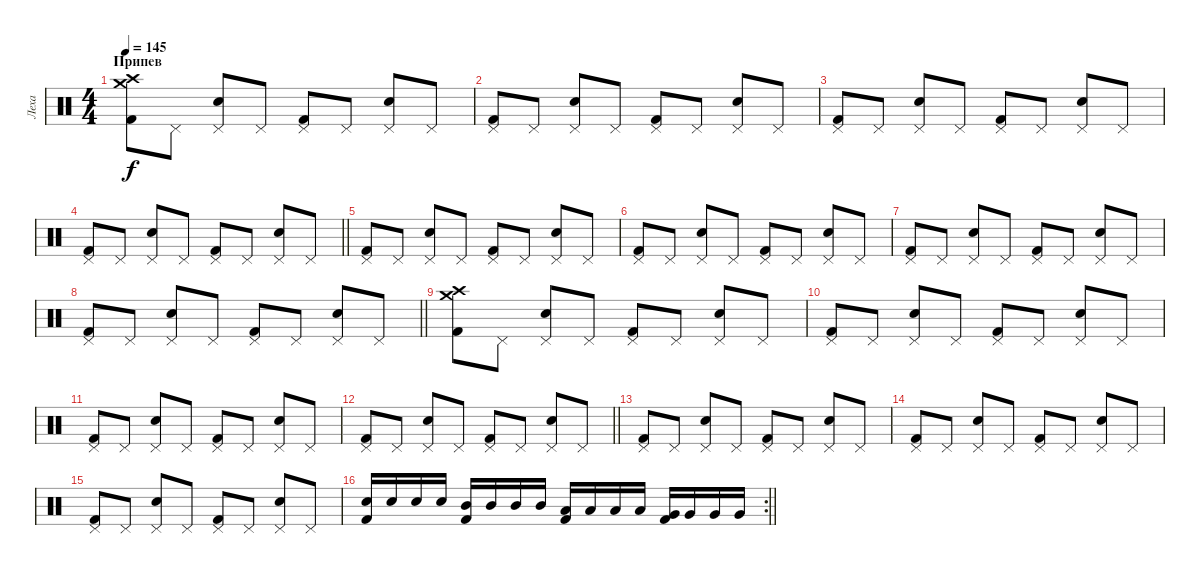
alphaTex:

\track ("Леха" "Леха") {instrument percussion}
\staff {score}
\articulation defaults
\ts (4 4)
\section ("" "Припев")
\tempo 145
\clef neutral
\ks c
("Crash medium (hit)" "Crash high (hit)" "Kick (hit) 2").8{dy f} "Pedal Hi-Hat (hit)".8 ("Pedal Hi-Hat (hit)" "Electric Snare (hit)").8 "Pedal Hi-Hat (hit)".8 ("Pedal Hi-Hat (hit)" "Kick (hit) 2").8 "Pedal Hi-Hat (hit)".8 ("Pedal Hi-Hat (hit)" "Electric Snare (hit)").8 "Pedal Hi-Hat (hit)".8 |
("Pedal Hi-Hat (hit)" "Kick (hit) 2").8 "Pedal Hi-Hat (hit)".8 ("Pedal Hi-Hat (hit)" "Electric Snare (hit)").8 "Pedal Hi-Hat (hit)".8 ("Pedal Hi-Hat (hit)" "Kick (hit) 2").8 "Pedal Hi-Hat (hit)".8 ("Pedal Hi-Hat (hit)" "Electric Snare (hit)").8 "Pedal Hi-Hat (hit)".8 |
("Pedal Hi-Hat (hit)" "Kick (hit) 2").8 "Pedal Hi-Hat (hit)".8 ("Pedal Hi-Hat (hit)" "Electric Snare (hit)").8 "Pedal Hi-Hat (hit)".8 ("Pedal Hi-Hat (hit)" "Kick (hit) 2").8 "Pedal Hi-Hat (hit)".8 ("Pedal Hi-Hat (hit)" "Electric Snare (hit)").8 "Pedal Hi-Hat (hit)".8 |
\barLineRight lightlight
("Pedal Hi-Hat (hit)" "Kick (hit) 2").8 "Pedal Hi-Hat (hit)".8 ("Pedal Hi-Hat (hit)" "Electric Snare (hit)").8 "Pedal Hi-Hat (hit)".8 ("Pedal Hi-Hat (hit)" "Kick (hit) 2").8 "Pedal Hi-Hat (hit)".8 ("Pedal Hi-Hat (hit)" "Electric Snare (hit)").8 "Pedal Hi-Hat (hit)".8 |
("Pedal Hi-Hat (hit)" "Kick (hit) 2").8 "Pedal Hi-Hat (hit)".8 ("Pedal Hi-Hat (hit)" "Electric Snare (hit)").8 "Pedal Hi-Hat (hit)".8 ("Pedal Hi-Hat (hit)" "Kick (hit) 2").8 "Pedal Hi-Hat (hit)".8 ("Pedal Hi-Hat (hit)" "Electric Snare (hit)").8 "Pedal Hi-Hat (hit)".8 |
("Pedal Hi-Hat (hit)" "Kick (hit) 2").8 "Pedal Hi-Hat (hit)".8 ("Pedal Hi-Hat (hit)" "Electric Snare (hit)").8 "Pedal Hi-Hat (hit)".8 ("Pedal Hi-Hat (hit)" "Kick (hit) 2").8 "Pedal Hi-Hat (hit)".8 ("Pedal Hi-Hat (hit)" "Electric Snare (hit)").8 "Pedal Hi-Hat (hit)".8 |
("Pedal Hi-Hat (hit)" "Kick (hit) 2").8 "Pedal Hi-Hat (hit)".8 ("Pedal Hi-Hat (hit)" "Electric Snare (hit)").8 "Pedal Hi-Hat (hit)".8 ("Pedal Hi-Hat (hit)" "Kick (hit) 2").8 "Pedal Hi-Hat (hit)".8 ("Pedal Hi-Hat (hit)" "Electric Snare (hit)").8 "Pedal Hi-Hat (hit)".8 |
\barLineRight lightlight
("Pedal Hi-Hat (hit)" "Kick (hit) 2").8 "Pedal Hi-Hat (hit)".8 ("Pedal Hi-Hat (hit)" "Electric Snare (hit)").8 "Pedal Hi-Hat (hit)".8 ("Pedal Hi-Hat (hit)" "Kick (hit) 2").8 "Pedal Hi-Hat (hit)".8 ("Pedal Hi-Hat (hit)" "Electric Snare (hit)").8 "Pedal Hi-Hat (hit)".8 |
("Crash medium (hit)" "Crash high (hit)" "Kick (hit) 2").8 "Pedal Hi-Hat (hit)".8 ("Pedal Hi-Hat (hit)" "Electric Snare (hit)").8 "Pedal Hi-Hat (hit)".8 ("Pedal Hi-Hat (hit)" "Kick (hit) 2").8 "Pedal Hi-Hat (hit)".8 ("Pedal Hi-Hat (hit)" "Electric Snare (hit)").8 "Pedal Hi-Hat (hit)".8 |
("Pedal Hi-Hat (hit)" "Kick (hit) 2").8 "Pedal Hi-Hat (hit)".8 ("Pedal Hi-Hat (hit)" "Electric Snare (hit)").8 "Pedal Hi-Hat (hit)".8 ("Pedal Hi-Hat (hit)" "Kick (hit) 2").8 "Pedal Hi-Hat (hit)".8 ("Pedal Hi-Hat (hit)" "Electric Snare (hit)").8 "Pedal Hi-Hat (hit)".8 |
("Pedal Hi-Hat (hit)" "Kick (hit) 2").8 "Pedal Hi-Hat (hit)".8 ("Pedal Hi-Hat (hit)" "Electric Snare (hit)").8 "Pedal Hi-Hat (hit)".8 ("Pedal Hi-Hat (hit)" "Kick (hit) 2").8 "Pedal Hi-Hat (hit)".8 ("Pedal Hi-Hat (hit)" "Electric Snare (hit)").8 "Pedal Hi-Hat (hit)".8 |
\barLineRight lightlight
("Pedal Hi-Hat (hit)" "Kick (hit) 2").8 "Pedal Hi-Hat (hit)".8 ("Pedal Hi-Hat (hit)" "Electric Snare (hit)").8 "Pedal Hi-Hat (hit)".8 ("Pedal Hi-Hat (hit)" "Kick (hit) 2").8 "Pedal Hi-Hat (hit)".8 ("Pedal Hi-Hat (hit)" "Electric Snare (hit)").8 "Pedal Hi-Hat (hit)".8 |
("Pedal Hi-Hat (hit)" "Kick (hit) 2").8 "Pedal Hi-Hat (hit)".8 ("Pedal Hi-Hat (hit)" "Electric Snare (hit)").8 "Pedal Hi-Hat (hit)".8 ("Pedal Hi-Hat (hit)" "Kick (hit) 2").8 "Pedal Hi-Hat (hit)".8 ("Pedal Hi-Hat (hit)" "Electric Snare (hit)").8 "Pedal Hi-Hat (hit)".8 |
("Pedal Hi-Hat (hit)" "Kick (hit) 2").8 "Pedal Hi-Hat (hit)".8 ("Pedal Hi-Hat (hit)" "Electric Snare (hit)").8 "Pedal Hi-Hat (hit)".8 ("Pedal Hi-Hat (hit)" "Kick (hit) 2").8 "Pedal Hi-Hat (hit)".8 ("Pedal Hi-Hat (hit)" "Electric Snare (hit)").8 "Pedal Hi-Hat (hit)".8 |
("Pedal Hi-Hat (hit)" "Kick (hit) 2").8 "Pedal Hi-Hat (hit)".8 ("Pedal Hi-Hat (hit)" "Electric Snare (hit)").8 "Pedal Hi-Hat (hit)".8 ("Pedal Hi-Hat (hit)" "Kick (hit) 2").8 "Pedal Hi-Hat (hit)".8 ("Pedal Hi-Hat (hit)" "Electric Snare (hit)").8 "Pedal Hi-Hat (hit)".8 |
\rc 2
\barLineRight lightlight
("Electric Snare (hit)" "Kick (hit) 2").16 "Electric Snare (hit)".16 "Electric Snare (hit)".16 "Electric Snare (hit)".16 ("Mid Tom (hit)" "Kick (hit) 2").16 "Mid Tom (hit)".16 "Mid Tom (hit)".16 "Mid Tom (hit)".16 ("Low Tom (hit)" "Kick (hit) 2").16 "Low Tom (hit)".16 "Low Tom (hit)".16 "Low Tom (hit)".16 ("Very Low Tom (hit)" "Kick (hit) 2").16 "Very Low Tom (hit)".16 "Very Low Tom (hit)".16 "Very Low Tom (hit)".16
